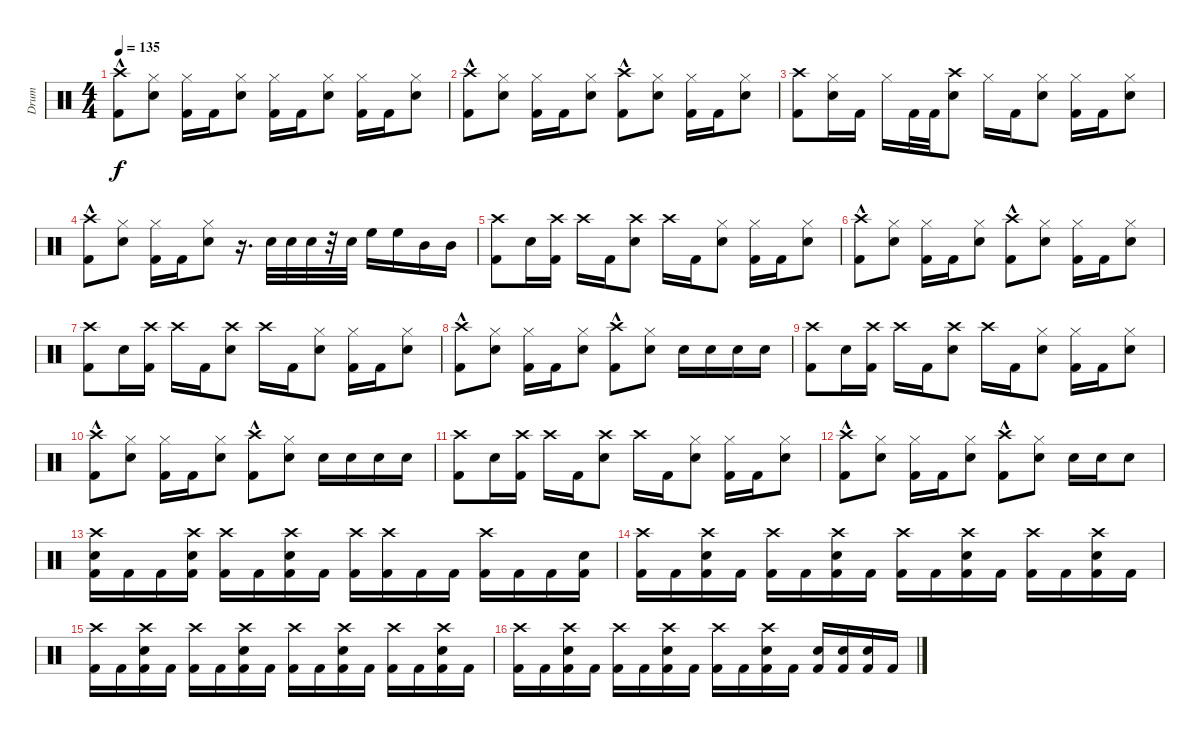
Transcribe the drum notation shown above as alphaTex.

\track ("Drum" "Drum") {instrument percussion}
\staff {score}
\articulation defaults
\ts (4 4)
\tempo 135
\clef neutral
\ks c
("Crash high (hit)" "Kick (hit) 2"{hac}).8{dy f} ("Hi-Hat (closed)" "Snare (hit) 2").8 ("Hi-Hat (closed)" "Kick (hit) 2").16 "Kick (hit) 2".16 ("Hi-Hat (closed)" "Snare (hit) 2").8 ("Hi-Hat (closed)" "Kick (hit) 2").16 "Kick (hit) 2".16 ("Hi-Hat (closed)" "Snare (hit) 2").8 ("Hi-Hat (closed)" "Kick (hit) 2").16 "Kick (hit) 2".16 ("Hi-Hat (closed)" "Snare (hit) 2").8 |
("Crash high (hit)" "Kick (hit) 2"{hac}).8 ("Hi-Hat (closed)" "Snare (hit) 2").8 ("Hi-Hat (closed)" "Kick (hit) 2").16 "Kick (hit) 2".16 ("Hi-Hat (closed)" "Snare (hit) 2").8 ("Kick (hit) 2"{hac} "Crash high (hit)").8 ("Hi-Hat (closed)" "Snare (hit) 2").8 ("Hi-Hat (closed)" "Kick (hit) 2").16 "Kick (hit) 2".16 ("Hi-Hat (closed)" "Snare (hit) 2").8 |
("Crash high (hit)" "Kick (hit) 2").8 ("Hi-Hat (closed)" "Snare (hit) 2").16 "Kick (hit) 2".16 "Hi-Hat (closed)".16 "Kick (hit) 2".32 "Kick (hit) 2".32 ("Crash high (hit)" "Snare (hit) 2").8 "Hi-Hat (closed)".16 "Kick (hit) 2".16 ("Hi-Hat (closed)" "Snare (hit) 2").8 ("Hi-Hat (closed)" "Kick (hit) 2").16 "Kick (hit) 2".16 ("Hi-Hat (closed)" "Snare (hit) 2").8 |
("Crash high (hit)" "Kick (hit) 2"{hac}).8 ("Hi-Hat (closed)" "Snare (hit) 2").8 ("Hi-Hat (closed)" "Kick (hit) 2").16 "Kick (hit) 2".16 ("Hi-Hat (closed)" "Snare (hit) 2").8 r.16{d} "Snare (hit) 2".32 "Snare (hit) 2".32 "Snare (hit) 2".32 r.32 "Snare (hit) 2".32 "High Floor Tom (hit)".16 "High Floor Tom (hit)".16 "Mid Tom (hit)".16 "Mid Tom (hit)".16 |
("Crash high (hit)" "Kick (hit) 2").8 "Snare (hit) 2".16 ("Crash high (hit)" "Kick (hit) 2").16 "Crash high (hit)".16 "Kick (hit) 2".16 ("Crash high (hit)" "Snare (hit) 2").8 "Crash high (hit)".16 "Kick (hit) 2".16 ("Hi-Hat (closed)" "Snare (hit) 2").8 ("Hi-Hat (closed)" "Kick (hit) 2").16 "Kick (hit) 2".16 ("Hi-Hat (closed)" "Snare (hit) 2").8 |
("Crash high (hit)" "Kick (hit) 2"{hac}).8 ("Hi-Hat (closed)" "Snare (hit) 2").8 ("Hi-Hat (closed)" "Kick (hit) 2").16 "Kick (hit) 2".16 ("Hi-Hat (closed)" "Snare (hit) 2").8 ("Crash high (hit)" "Kick (hit) 2"{hac}).8 ("Hi-Hat (closed)" "Snare (hit) 2").8 ("Hi-Hat (closed)" "Kick (hit) 2").16 "Kick (hit) 2".16 ("Hi-Hat (closed)" "Snare (hit) 2").8 |
("Crash high (hit)" "Kick (hit) 2").8 "Snare (hit) 2".16 ("Crash high (hit)" "Kick (hit) 2").16 "Crash high (hit)".16 "Kick (hit) 2".16 ("Crash high (hit)" "Snare (hit) 2").8 "Crash high (hit)".16 "Kick (hit) 2".16 ("Hi-Hat (closed)" "Snare (hit) 2").8 ("Hi-Hat (closed)" "Kick (hit) 2").16 "Kick (hit) 2".16 ("Hi-Hat (closed)" "Snare (hit) 2").8 |
("Crash high (hit)" "Kick (hit) 2"{hac}).8 ("Hi-Hat (closed)" "Snare (hit) 2").8 ("Hi-Hat (closed)" "Kick (hit) 2").16 "Kick (hit) 2".16 ("Hi-Hat (closed)" "Snare (hit) 2").8 ("Crash high (hit)" "Kick (hit) 2"{hac}).8 ("Hi-Hat (closed)" "Snare (hit) 2").8 "Snare (hit) 2".16 "Snare (hit) 2".16 "Snare (hit) 2".16 "Snare (hit) 2".16 |
("Crash high (hit)" "Kick (hit) 2").8 "Snare (hit) 2".16 ("Crash high (hit)" "Kick (hit) 2").16 "Crash high (hit)".16 "Kick (hit) 2".16 ("Crash high (hit)" "Snare (hit) 2").8 "Crash high (hit)".16 "Kick (hit) 2".16 ("Hi-Hat (closed)" "Snare (hit) 2").8 ("Hi-Hat (closed)" "Kick (hit) 2").16 "Kick (hit) 2".16 ("Hi-Hat (closed)" "Snare (hit) 2").8 |
("Crash high (hit)" "Kick (hit) 2"{hac}).8 ("Hi-Hat (closed)" "Snare (hit) 2").8 ("Hi-Hat (closed)" "Kick (hit) 2").16 "Kick (hit) 2".16 ("Hi-Hat (closed)" "Snare (hit) 2").8 ("Crash high (hit)" "Kick (hit) 2"{hac}).8 ("Hi-Hat (closed)" "Snare (hit) 2").8 "Snare (hit) 2".16 "Snare (hit) 2".16 "Snare (hit) 2".16 "Snare (hit) 2".16 |
("Crash high (hit)" "Kick (hit) 2").8 "Snare (hit) 2".16 ("Crash high (hit)" "Kick (hit) 2").16 "Crash high (hit)".16 "Kick (hit) 2".16 ("Crash high (hit)" "Snare (hit) 2").8 "Crash high (hit)".16 "Kick (hit) 2".16 ("Hi-Hat (closed)" "Snare (hit) 2").8 ("Hi-Hat (closed)" "Kick (hit) 2").16 "Kick (hit) 2".16 ("Hi-Hat (closed)" "Snare (hit) 2").8 |
("Crash high (hit)" "Kick (hit) 2"{hac}).8 ("Hi-Hat (closed)" "Snare (hit) 2").8 ("Hi-Hat (closed)" "Kick (hit) 2").16 "Kick (hit) 2".16 ("Hi-Hat (closed)" "Snare (hit) 2").8 ("Crash high (hit)" "Kick (hit) 2"{hac}).8 ("Hi-Hat (closed)" "Snare (hit) 2").8 "Snare (hit) 2".16 "Snare (hit) 2".16 "Snare (hit) 2".8 |
("Kick (hit) 2" "Snare (hit) 2" "Crash high (hit)").16 "Kick (hit) 2".16 "Kick (hit) 2".16 ("Kick (hit) 2" "Crash high (hit)" "Snare (hit) 2").16 ("Kick (hit) 2" "Crash high (hit)").16 "Kick (hit) 2".16 ("Kick (hit) 2" "Crash high (hit)" "Snare (hit) 2").16 "Kick (hit) 2".16 ("Kick (hit) 2" "Crash high (hit)").16 ("Kick (hit) 2" "Crash high (hit)").16 "Kick (hit) 2".16 "Kick (hit) 2".16 ("Kick (hit) 2" "Crash high (hit)").16 "Kick (hit) 2".16 "Kick (hit) 2".16 ("Kick (hit) 2" "Snare (hit) 2").16 |
("Kick (hit) 2" "Crash high (hit)").16 "Kick (hit) 2".16 ("Kick (hit) 2" "Crash high (hit)" "Snare (hit) 2").16 "Kick (hit) 2".16 ("Kick (hit) 2" "Crash high (hit)").16 "Kick (hit) 2".16 ("Kick (hit) 2" "Crash high (hit)" "Snare (hit) 2").16 "Kick (hit) 2".16 ("Kick (hit) 2" "Crash high (hit)").16 "Kick (hit) 2".16 ("Kick (hit) 2" "Crash high (hit)" "Snare (hit) 2").16 "Kick (hit) 2".16 ("Kick (hit) 2" "Crash high (hit)").16 "Kick (hit) 2".16 ("Kick (hit) 2" "Crash high (hit)" "Snare (hit) 2").16 "Kick (hit) 2".16 |
("Kick (hit) 2" "Crash high (hit)").16 "Kick (hit) 2".16 ("Kick (hit) 2" "Crash high (hit)" "Snare (hit) 2").16 "Kick (hit) 2".16 ("Kick (hit) 2" "Crash high (hit)").16 "Kick (hit) 2".16 ("Kick (hit) 2" "Crash high (hit)" "Snare (hit) 2").16 "Kick (hit) 2".16 ("Kick (hit) 2" "Crash high (hit)").16 "Kick (hit) 2".16 ("Kick (hit) 2" "Crash high (hit)" "Snare (hit) 2").16 "Kick (hit) 2".16 ("Kick (hit) 2" "Crash high (hit)").16 "Kick (hit) 2".16 ("Kick (hit) 2" "Crash high (hit)" "Snare (hit) 2").16 "Kick (hit) 2".16 |
("Kick (hit) 2" "Crash high (hit)").16 "Kick (hit) 2".16 ("Kick (hit) 2" "Crash high (hit)" "Snare (hit) 2").16 "Kick (hit) 2".16 ("Kick (hit) 2" "Crash high (hit)").16 "Kick (hit) 2".16 ("Kick (hit) 2" "Crash high (hit)" "Snare (hit) 2").16 "Kick (hit) 2".16 ("Kick (hit) 2" "Crash high (hit)").16 "Kick (hit) 2".16 ("Kick (hit) 2" "Crash high (hit)" "Snare (hit) 2").16 "Kick (hit) 2".16 ("Kick (hit) 2" "Snare (hit) 2").16 ("Kick (hit) 2" "Snare (hit) 2").16 ("Kick (hit) 2" "Snare (hit) 2").16 "Kick (hit) 2".16
